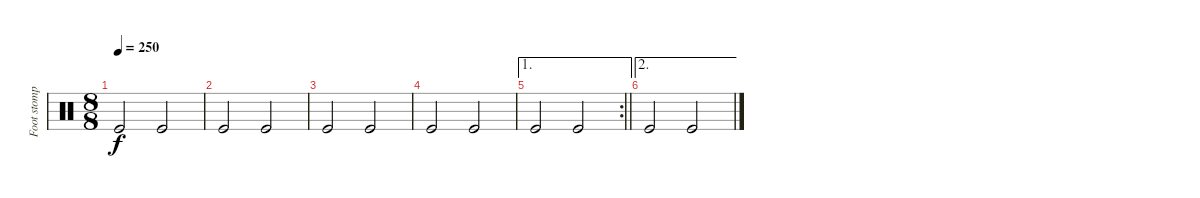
\track ("Foot stomp!" "Foot stomp") {instrument percussion}
\staff {score}
\articulation defaults
\ts (8 8)
\tempo 250
\clef neutral
\ks c "Kick (hit)".2{dy f} "Kick (hit)".2
|
"Kick (hit)".2 "Kick (hit)".2 |
"Kick (hit)".2 "Kick (hit)".2 |
"Kick (hit)".2 "Kick (hit)".2 |
\ae 1
\rc 2
\barLineRight lightlight "Kick (hit)".2 "Kick (hit)".2
|
\ae 2 "Kick (hit)".2 "Kick (hit)".2
